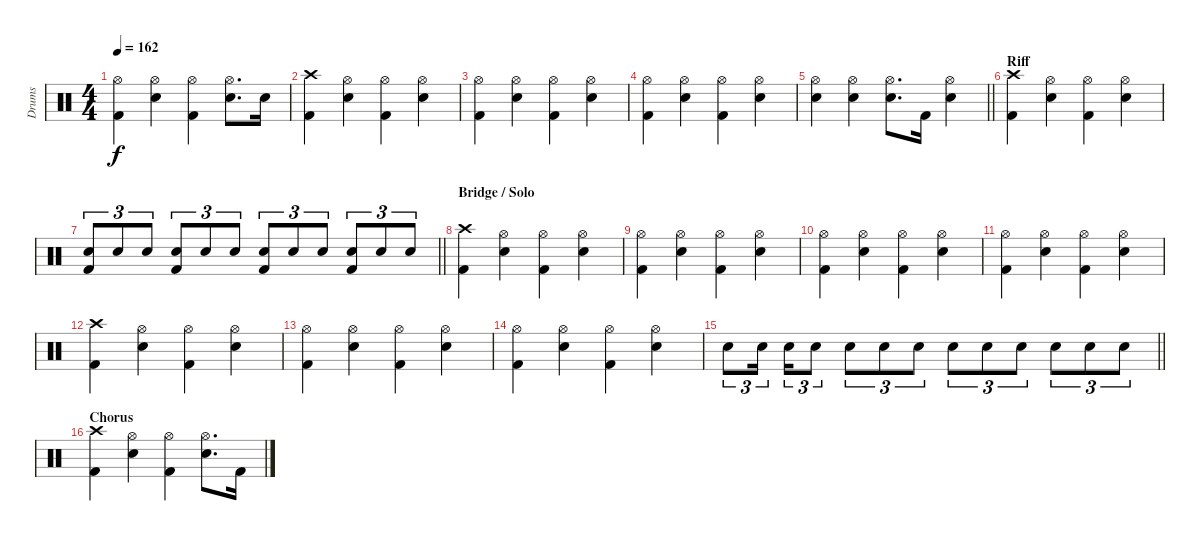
\track ("Drums" "Drums") {instrument percussion}
\staff {score}
\articulation defaults
\ts (4 4)
\tempo 162
\clef neutral
\ks c
("Hi-Hat (open)" "Kick (hit) 2").4{dy f} ("Hi-Hat (open)" "Electric Snare (hit)").4 ("Hi-Hat (open)" "Kick (hit) 2").4 ("Hi-Hat (open)" "Electric Snare (hit)").8{d} "Electric Snare (hit)".16 |
("Crash high (hit)" "Kick (hit) 2").4 ("Hi-Hat (open)" "Electric Snare (hit)").4 ("Hi-Hat (open)" "Kick (hit) 2").4 ("Hi-Hat (open)" "Electric Snare (hit)").4 |
("Hi-Hat (open)" "Kick (hit) 2").4 ("Hi-Hat (open)" "Electric Snare (hit)").4 ("Hi-Hat (open)" "Kick (hit) 2").4 ("Hi-Hat (open)" "Electric Snare (hit)").4 |
("Hi-Hat (open)" "Kick (hit) 2").4 ("Hi-Hat (open)" "Electric Snare (hit)").4 ("Hi-Hat (open)" "Kick (hit) 2").4 ("Hi-Hat (open)" "Electric Snare (hit)").4 |
\barLineRight lightlight
("Hi-Hat (open)" "Electric Snare (hit)").4 ("Hi-Hat (open)" "Electric Snare (hit)").4 ("Hi-Hat (open)" "Electric Snare (hit)").8{d} "Kick (hit) 2".16 ("Hi-Hat (open)" "Electric Snare (hit)").4 |
\section ("" "Riff")
("Crash high (hit)" "Kick (hit) 2").4 ("Hi-Hat (open)" "Electric Snare (hit)").4 ("Hi-Hat (open)" "Kick (hit) 2").4 ("Hi-Hat (open)" "Electric Snare (hit)").4 |
\barLineRight lightlight
("Electric Snare (hit)" "Kick (hit) 2").8{tu (3 2)} "Electric Snare (hit)".8{tu (3 2)} "Electric Snare (hit)".8{tu (3 2)} ("Electric Snare (hit)" "Kick (hit) 2").8{tu (3 2)} "Electric Snare (hit)".8{tu (3 2)} "Electric Snare (hit)".8{tu (3 2)} ("Electric Snare (hit)" "Kick (hit) 2").8{tu (3 2)} "Electric Snare (hit)".8{tu (3 2)} "Electric Snare (hit)".8{tu (3 2)} ("Electric Snare (hit)" "Kick (hit) 2").8{tu (3 2)} "Electric Snare (hit)".8{tu (3 2)} "Electric Snare (hit)".8{tu (3 2)} |
\section ("" "Bridge / Solo")
("Crash high (hit)" "Kick (hit) 2").4 ("Hi-Hat (open)" "Electric Snare (hit)").4 ("Hi-Hat (open)" "Kick (hit) 2").4 ("Hi-Hat (open)" "Electric Snare (hit)").4 |
("Hi-Hat (open)" "Kick (hit) 2").4 ("Hi-Hat (open)" "Electric Snare (hit)").4 ("Hi-Hat (open)" "Kick (hit) 2").4 ("Hi-Hat (open)" "Electric Snare (hit)").4 |
("Hi-Hat (open)" "Kick (hit) 2").4 ("Hi-Hat (open)" "Electric Snare (hit)").4 ("Hi-Hat (open)" "Kick (hit) 2").4 ("Hi-Hat (open)" "Electric Snare (hit)").4 |
("Hi-Hat (open)" "Kick (hit) 2").4 ("Hi-Hat (open)" "Electric Snare (hit)").4 ("Hi-Hat (open)" "Kick (hit) 2").4 ("Hi-Hat (open)" "Electric Snare (hit)").4 |
("Crash high (hit)" "Kick (hit) 2").4 ("Hi-Hat (open)" "Electric Snare (hit)").4 ("Hi-Hat (open)" "Kick (hit) 2").4 ("Hi-Hat (open)" "Electric Snare (hit)").4 |
("Hi-Hat (open)" "Kick (hit) 2").4 ("Hi-Hat (open)" "Electric Snare (hit)").4 ("Hi-Hat (open)" "Kick (hit) 2").4 ("Hi-Hat (open)" "Electric Snare (hit)").4 |
("Hi-Hat (open)" "Kick (hit) 2").4 ("Hi-Hat (open)" "Electric Snare (hit)").4 ("Hi-Hat (open)" "Kick (hit) 2").4 ("Hi-Hat (open)" "Electric Snare (hit)").4 |
\barLineRight lightlight "Electric Snare (hit)".8{tu (3 2)} "Electric Snare (hit)".16{tu (3 2) beam splitsecondary} "Electric Snare (hit)".16{tu (3 2)} "Electric Snare (hit)".8{tu (3 2)} "Electric Snare (hit)".8{tu (3 2)} "Electric Snare (hit)".8{tu (3 2)} "Electric Snare (hit)".8{tu (3 2)} "Electric Snare (hit)".8{tu (3 2)} "Electric Snare (hit)".8{tu (3 2)} "Electric Snare (hit)".8{tu (3 2)} "Electric Snare (hit)".8{tu (3 2)} "Electric Snare (hit)".8{tu (3 2)} "Electric Snare (hit)".8{tu (3 2)}
|
\section ("" "Chorus")
("Crash high (hit)" "Kick (hit) 2").4 ("Hi-Hat (open)" "Electric Snare (hit)").4 ("Hi-Hat (open)" "Kick (hit) 2").4 ("Hi-Hat (open)" "Electric Snare (hit)").8{d} "Kick (hit) 2".16
